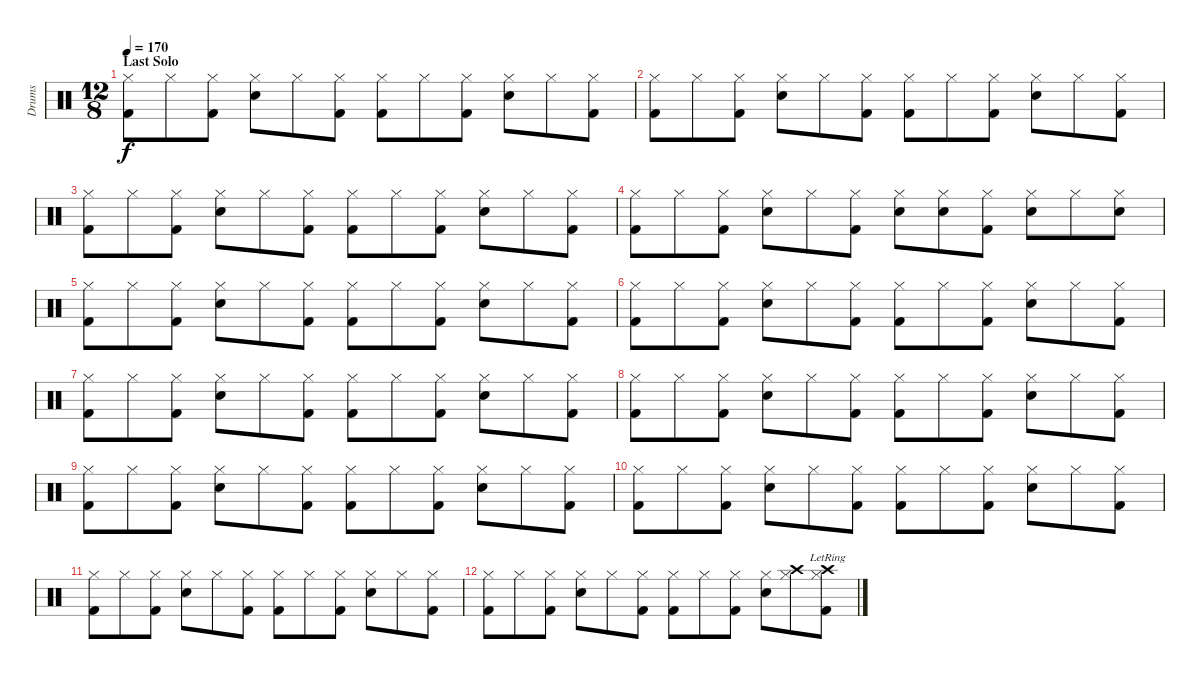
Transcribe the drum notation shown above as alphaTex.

\track ("Drums" "Drums") {instrument percussion}
\staff {score}
\articulation defaults
\ts (12 8)
\section ("" "Last Solo")
\tempo 170
\clef neutral
\ks c
("Kick (hit) 2" "Hi-Hat (closed)").8{dy f} "Hi-Hat (closed)".8 ("Kick (hit) 2" "Hi-Hat (closed)").8 ("Snare (hit) 2" "Hi-Hat (closed)").8 "Hi-Hat (closed)".8 ("Kick (hit) 2" "Hi-Hat (closed)").8 ("Kick (hit) 2" "Hi-Hat (closed)").8 "Hi-Hat (closed)".8 ("Kick (hit) 2" "Hi-Hat (closed)").8 ("Snare (hit) 2" "Hi-Hat (closed)").8 "Hi-Hat (closed)".8 ("Kick (hit) 2" "Hi-Hat (closed)").8 |
("Kick (hit) 2" "Hi-Hat (closed)").8 "Hi-Hat (closed)".8 ("Kick (hit) 2" "Hi-Hat (closed)").8 ("Snare (hit) 2" "Hi-Hat (closed)").8 "Hi-Hat (closed)".8 ("Kick (hit) 2" "Hi-Hat (closed)").8 ("Kick (hit) 2" "Hi-Hat (closed)").8 "Hi-Hat (closed)".8 ("Kick (hit) 2" "Hi-Hat (closed)").8 ("Snare (hit) 2" "Hi-Hat (closed)").8 "Hi-Hat (closed)".8 ("Kick (hit) 2" "Hi-Hat (closed)").8 |
("Kick (hit) 2" "Hi-Hat (closed)").8 "Hi-Hat (closed)".8 ("Kick (hit) 2" "Hi-Hat (closed)").8 ("Snare (hit) 2" "Hi-Hat (closed)").8 "Hi-Hat (closed)".8 ("Kick (hit) 2" "Hi-Hat (closed)").8 ("Kick (hit) 2" "Hi-Hat (closed)").8 "Hi-Hat (closed)".8 ("Kick (hit) 2" "Hi-Hat (closed)").8 ("Snare (hit) 2" "Hi-Hat (closed)").8 "Hi-Hat (closed)".8 ("Kick (hit) 2" "Hi-Hat (closed)").8 |
("Kick (hit) 2" "Hi-Hat (closed)").8 "Hi-Hat (closed)".8 ("Kick (hit) 2" "Hi-Hat (closed)").8 ("Snare (hit) 2" "Hi-Hat (closed)").8 "Hi-Hat (closed)".8 ("Kick (hit) 2" "Hi-Hat (closed)").8 ("Snare (hit) 2" "Hi-Hat (closed)").8 ("Snare (hit) 2" "Hi-Hat (closed)").8 ("Kick (hit) 2" "Hi-Hat (closed)").8 ("Snare (hit) 2" "Hi-Hat (closed)").8 "Hi-Hat (closed)".8 ("Snare (hit) 2" "Hi-Hat (closed)").8 |
("Kick (hit) 2" "Hi-Hat (closed)").8 "Hi-Hat (closed)".8 ("Kick (hit) 2" "Hi-Hat (closed)").8 ("Snare (hit) 2" "Hi-Hat (closed)").8 "Hi-Hat (closed)".8 ("Kick (hit) 2" "Hi-Hat (closed)").8 ("Kick (hit) 2" "Hi-Hat (closed)").8 "Hi-Hat (closed)".8 ("Kick (hit) 2" "Hi-Hat (closed)").8 ("Snare (hit) 2" "Hi-Hat (closed)").8 "Hi-Hat (closed)".8 ("Kick (hit) 2" "Hi-Hat (closed)").8 |
("Kick (hit) 2" "Hi-Hat (closed)").8 "Hi-Hat (closed)".8 ("Kick (hit) 2" "Hi-Hat (closed)").8 ("Snare (hit) 2" "Hi-Hat (closed)").8 "Hi-Hat (closed)".8 ("Kick (hit) 2" "Hi-Hat (closed)").8 ("Kick (hit) 2" "Hi-Hat (closed)").8 "Hi-Hat (closed)".8 ("Kick (hit) 2" "Hi-Hat (closed)").8 ("Snare (hit) 2" "Hi-Hat (closed)").8 "Hi-Hat (closed)".8 ("Kick (hit) 2" "Hi-Hat (closed)").8 |
("Kick (hit) 2" "Hi-Hat (closed)").8 "Hi-Hat (closed)".8 ("Kick (hit) 2" "Hi-Hat (closed)").8 ("Snare (hit) 2" "Hi-Hat (closed)").8 "Hi-Hat (closed)".8 ("Kick (hit) 2" "Hi-Hat (closed)").8 ("Kick (hit) 2" "Hi-Hat (closed)").8 "Hi-Hat (closed)".8 ("Kick (hit) 2" "Hi-Hat (closed)").8 ("Snare (hit) 2" "Hi-Hat (closed)").8 "Hi-Hat (closed)".8 ("Kick (hit) 2" "Hi-Hat (closed)").8 |
("Kick (hit) 2" "Hi-Hat (closed)").8 "Hi-Hat (closed)".8 ("Kick (hit) 2" "Hi-Hat (closed)").8 ("Snare (hit) 2" "Hi-Hat (closed)").8 "Hi-Hat (closed)".8 ("Kick (hit) 2" "Hi-Hat (closed)").8 ("Kick (hit) 2" "Hi-Hat (closed)").8 "Hi-Hat (closed)".8 ("Kick (hit) 2" "Hi-Hat (closed)").8 ("Snare (hit) 2" "Hi-Hat (closed)").8 "Hi-Hat (closed)".8 ("Kick (hit) 2" "Hi-Hat (closed)").8 |
("Kick (hit) 2" "Hi-Hat (closed)").8 "Hi-Hat (closed)".8 ("Kick (hit) 2" "Hi-Hat (closed)").8 ("Snare (hit) 2" "Hi-Hat (closed)").8 "Hi-Hat (closed)".8 ("Kick (hit) 2" "Hi-Hat (closed)").8 ("Kick (hit) 2" "Hi-Hat (closed)").8 "Hi-Hat (closed)".8 ("Kick (hit) 2" "Hi-Hat (closed)").8 ("Snare (hit) 2" "Hi-Hat (closed)").8 "Hi-Hat (closed)".8 ("Kick (hit) 2" "Hi-Hat (closed)").8 |
("Kick (hit) 2" "Hi-Hat (closed)").8 "Hi-Hat (closed)".8 ("Kick (hit) 2" "Hi-Hat (closed)").8 ("Snare (hit) 2" "Hi-Hat (closed)").8 "Hi-Hat (closed)".8 ("Kick (hit) 2" "Hi-Hat (closed)").8 ("Kick (hit) 2" "Hi-Hat (closed)").8 "Hi-Hat (closed)".8 ("Kick (hit) 2" "Hi-Hat (closed)").8 ("Snare (hit) 2" "Hi-Hat (closed)").8 "Hi-Hat (closed)".8 ("Kick (hit) 2" "Hi-Hat (closed)").8 |
("Kick (hit) 2" "Hi-Hat (closed)").8 "Hi-Hat (closed)".8 ("Kick (hit) 2" "Hi-Hat (closed)").8 ("Snare (hit) 2" "Hi-Hat (closed)").8 "Hi-Hat (closed)".8 ("Kick (hit) 2" "Hi-Hat (closed)").8 ("Kick (hit) 2" "Hi-Hat (closed)").8 "Hi-Hat (closed)".8 ("Kick (hit) 2" "Hi-Hat (closed)").8 ("Snare (hit) 2" "Hi-Hat (closed)").8 "Hi-Hat (closed)".8 ("Kick (hit) 2" "Hi-Hat (closed)").8 |
("Kick (hit) 2" "Hi-Hat (closed)").8 "Hi-Hat (closed)".8 ("Kick (hit) 2" "Hi-Hat (closed)").8 ("Snare (hit) 2" "Hi-Hat (closed)").8 "Hi-Hat (closed)".8 ("Kick (hit) 2" "Hi-Hat (closed)").8 ("Kick (hit) 2" "Hi-Hat (closed)").8 "Hi-Hat (closed)".8 ("Kick (hit) 2" "Hi-Hat (closed)").8 ("Snare (hit) 2" "Hi-Hat (closed)").8 ("Crash high (hit)" "Hi-Hat (closed)").8 ("Kick (hit) 2" "Crash high (hit)"{lr} "Hi-Hat (closed)").8
